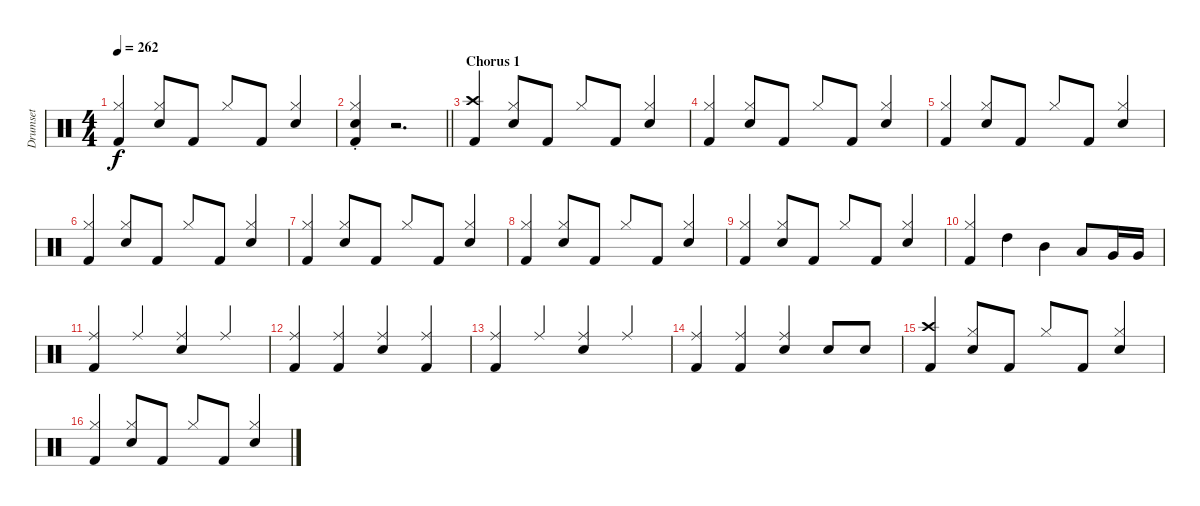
\track ("Drumset" "Drumset") {instrument percussion}
\staff {score}
\articulation defaults
\ts (4 4)
\tempo 262
\clef neutral
\ks c
("Hi-Hat (closed)" "Kick (hit) 2").4{dy f beam Up} ("Hi-Hat (closed)" "Snare (hit) 2").8{beam Up} "Kick (hit) 2".8{beam Up} "Hi-Hat (closed)".8{beam Up} "Kick (hit) 2".8{beam Up} ("Snare (hit) 2" "Hi-Hat (closed)").4{beam Up} |
\barLineRight lightlight
("Hi-Hat (closed)"{st} "Kick (hit) 2"{st} "Snare (hit) 2"{st}).4{beam Up} r.2{d} |
\section ("" "Chorus 1")
("Crash high (hit)" "Kick (hit) 2").4{beam Up} ("Snare (hit) 2" "Hi-Hat (closed)").8{beam Up} "Kick (hit) 2".8{beam Up} "Hi-Hat (closed)".8{beam Up} "Kick (hit) 2".8{beam Up} ("Snare (hit) 2" "Hi-Hat (closed)").4{beam Up} |
("Hi-Hat (closed)" "Kick (hit) 2").4{beam Up} ("Hi-Hat (closed)" "Snare (hit) 2").8{beam Up} "Kick (hit) 2".8{beam Up} "Hi-Hat (closed)".8{beam Up} "Kick (hit) 2".8{beam Up} ("Snare (hit) 2" "Hi-Hat (closed)").4{beam Up} |
("Hi-Hat (closed)" "Kick (hit) 2").4{beam Up} ("Hi-Hat (closed)" "Snare (hit) 2").8{beam Up} "Kick (hit) 2".8{beam Up} "Hi-Hat (closed)".8{beam Up} "Kick (hit) 2".8{beam Up} ("Snare (hit) 2" "Hi-Hat (closed)").4{beam Up} |
("Hi-Hat (closed)" "Kick (hit) 2").4{beam Up} ("Hi-Hat (closed)" "Snare (hit) 2").8{beam Up} "Kick (hit) 2".8{beam Up} "Hi-Hat (closed)".8{beam Up} "Kick (hit) 2".8{beam Up} ("Snare (hit) 2" "Hi-Hat (closed)").4{beam Up} |
("Hi-Hat (closed)" "Kick (hit) 2").4{beam Up} ("Hi-Hat (closed)" "Snare (hit) 2").8{beam Up} "Kick (hit) 2".8{beam Up} "Hi-Hat (closed)".8{beam Up} "Kick (hit) 2".8{beam Up} ("Snare (hit) 2" "Hi-Hat (closed)").4{beam Up} |
("Hi-Hat (closed)" "Kick (hit) 2").4{beam Up} ("Hi-Hat (closed)" "Snare (hit) 2").8{beam Up} "Kick (hit) 2".8{beam Up} "Hi-Hat (closed)".8{beam Up} "Kick (hit) 2".8{beam Up} ("Snare (hit) 2" "Hi-Hat (closed)").4{beam Up} |
("Hi-Hat (closed)" "Kick (hit) 2").4{beam Up} ("Hi-Hat (closed)" "Snare (hit) 2").8{beam Up} "Kick (hit) 2".8{beam Up} "Hi-Hat (closed)".8{beam Up} "Kick (hit) 2".8{beam Up} ("Snare (hit) 2" "Hi-Hat (closed)").4{beam Up} |
("Hi-Hat (closed)" "Kick (hit) 2").4{beam Up} "High Tom (hit)".4 "Mid Tom (hit)".4 "Low Tom (hit)".8 "Very Low Tom (hit)".16 "Very Low Tom (hit)".16 |
("Ride (middle)" "Kick (hit) 2").4{beam Up} "Ride (middle)".4{beam Up} ("Ride (middle)" "Snare (hit) 2").4{beam Up} "Ride (middle)".4{beam Up} |
("Ride (middle)" "Kick (hit) 2").4{beam Up} ("Ride (middle)" "Kick (hit) 2").4{beam Up} ("Ride (middle)" "Snare (hit) 2").4{beam Up} ("Ride (middle)" "Kick (hit) 2").4{beam Up} |
("Ride (middle)" "Kick (hit) 2").4{beam Up} "Ride (middle)".4{beam Up} ("Ride (middle)" "Snare (hit) 2").4{beam Up} "Ride (middle)".4{beam Up} |
("Ride (middle)" "Kick (hit) 2").4{beam Up} ("Ride (middle)" "Kick (hit) 2").4{beam Up} ("Ride (middle)" "Snare (hit) 2").4{beam Up} "Snare (hit) 2".8{beam Up} "Snare (hit) 2".8{beam Up} |
("Kick (hit) 2" "Crash high (hit)").4{beam Up} ("Hi-Hat (closed)" "Snare (hit) 2").8{beam Up} "Kick (hit) 2".8{beam Up} "Hi-Hat (closed)".8{beam Up} "Kick (hit) 2".8{beam Up} ("Snare (hit) 2" "Hi-Hat (closed)").4{beam Up} |
("Hi-Hat (closed)" "Kick (hit) 2").4{beam Up} ("Hi-Hat (closed)" "Snare (hit) 2").8{beam Up} "Kick (hit) 2".8{beam Up} "Hi-Hat (closed)".8{beam Up} "Kick (hit) 2".8{beam Up} ("Snare (hit) 2" "Hi-Hat (closed)").4{beam Up}
